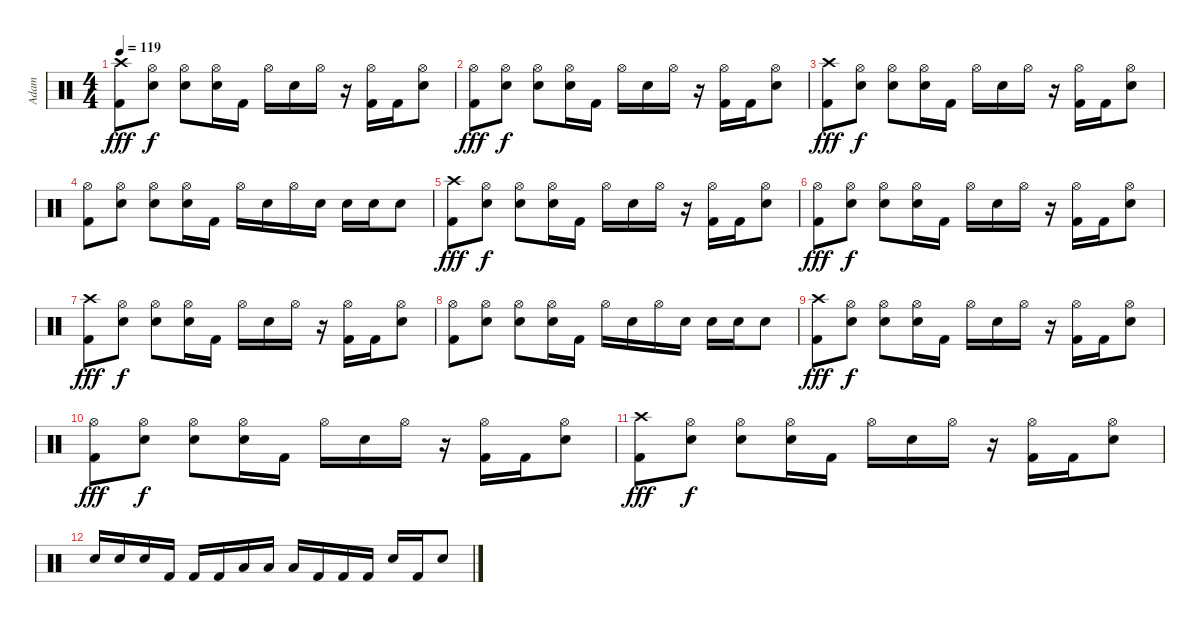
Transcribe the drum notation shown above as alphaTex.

\track ("Adam" "Adam") {instrument percussion}
\staff {score}
\articulation defaults
\ts (4 4)
\tempo 119
\clef neutral
\ks c
("Crash high (hit)" "Kick (hit) 2").8{dy fff} ("Hi-Hat (open)" "Electric Snare (hit)").8{dy f} ("Hi-Hat (open)" "Electric Snare (hit)").8 ("Hi-Hat (open)" "Electric Snare (hit)").16 "Kick (hit) 2".16 "Hi-Hat (open)".16 "Electric Snare (hit)".16 "Hi-Hat (open)".16 r.16 ("Hi-Hat (open)" "Kick (hit) 2").16 "Kick (hit) 2".16 ("Hi-Hat (open)" "Electric Snare (hit)").8 |
("Hi-Hat (open)" "Kick (hit) 2").8{dy fff} ("Hi-Hat (open)" "Electric Snare (hit)").8{dy f} ("Hi-Hat (open)" "Electric Snare (hit)").8 ("Hi-Hat (open)" "Electric Snare (hit)").16 "Kick (hit) 2".16 "Hi-Hat (open)".16 "Electric Snare (hit)".16 "Hi-Hat (open)".16 r.16 ("Hi-Hat (open)" "Kick (hit) 2").16 "Kick (hit) 2".16 ("Hi-Hat (open)" "Electric Snare (hit)").8 |
("Crash high (hit)" "Kick (hit) 2").8{dy fff} ("Hi-Hat (open)" "Electric Snare (hit)").8{dy f} ("Hi-Hat (open)" "Electric Snare (hit)").8 ("Hi-Hat (open)" "Electric Snare (hit)").16 "Kick (hit) 2".16 "Hi-Hat (open)".16 "Electric Snare (hit)".16 "Hi-Hat (open)".16 r.16 ("Hi-Hat (open)" "Kick (hit) 2").16 "Kick (hit) 2".16 ("Hi-Hat (open)" "Electric Snare (hit)").8 |
("Hi-Hat (open)" "Kick (hit) 2").8 ("Hi-Hat (open)" "Electric Snare (hit)").8 ("Hi-Hat (open)" "Electric Snare (hit)").8 ("Hi-Hat (open)" "Electric Snare (hit)").16 "Kick (hit) 2".16 "Hi-Hat (open)".16 "Electric Snare (hit)".16 "Hi-Hat (open)".16 "Electric Snare (hit)".16 "Electric Snare (hit)".16 "Electric Snare (hit)".16 "Electric Snare (hit)".8 |
("Crash high (hit)" "Kick (hit) 2").8{dy fff} ("Hi-Hat (open)" "Electric Snare (hit)").8{dy f} ("Hi-Hat (open)" "Electric Snare (hit)").8 ("Hi-Hat (open)" "Electric Snare (hit)").16 "Kick (hit) 2".16 "Hi-Hat (open)".16 "Electric Snare (hit)".16 "Hi-Hat (open)".16 r.16 ("Hi-Hat (open)" "Kick (hit) 2").16 "Kick (hit) 2".16 ("Hi-Hat (open)" "Electric Snare (hit)").8 |
("Hi-Hat (open)" "Kick (hit) 2").8{dy fff} ("Hi-Hat (open)" "Electric Snare (hit)").8{dy f} ("Hi-Hat (open)" "Electric Snare (hit)").8 ("Hi-Hat (open)" "Electric Snare (hit)").16 "Kick (hit) 2".16 "Hi-Hat (open)".16 "Electric Snare (hit)".16 "Hi-Hat (open)".16 r.16 ("Hi-Hat (open)" "Kick (hit) 2").16 "Kick (hit) 2".16 ("Hi-Hat (open)" "Electric Snare (hit)").8 |
("Crash high (hit)" "Kick (hit) 2").8{dy fff} ("Hi-Hat (open)" "Electric Snare (hit)").8{dy f} ("Hi-Hat (open)" "Electric Snare (hit)").8 ("Hi-Hat (open)" "Electric Snare (hit)").16 "Kick (hit) 2".16 "Hi-Hat (open)".16 "Electric Snare (hit)".16 "Hi-Hat (open)".16 r.16 ("Hi-Hat (open)" "Kick (hit) 2").16 "Kick (hit) 2".16 ("Hi-Hat (open)" "Electric Snare (hit)").8 |
("Hi-Hat (open)" "Kick (hit) 2").8 ("Hi-Hat (open)" "Electric Snare (hit)").8 ("Hi-Hat (open)" "Electric Snare (hit)").8 ("Hi-Hat (open)" "Electric Snare (hit)").16 "Kick (hit) 2".16 "Hi-Hat (open)".16 "Electric Snare (hit)".16 "Hi-Hat (open)".16 "Electric Snare (hit)".16 "Electric Snare (hit)".16 "Electric Snare (hit)".16 "Electric Snare (hit)".8 |
("Crash high (hit)" "Kick (hit) 2").8{dy fff} ("Hi-Hat (open)" "Electric Snare (hit)").8{dy f} ("Hi-Hat (open)" "Electric Snare (hit)").8 ("Hi-Hat (open)" "Electric Snare (hit)").16 "Kick (hit) 2".16 "Hi-Hat (open)".16 "Electric Snare (hit)".16 "Hi-Hat (open)".16 r.16 ("Hi-Hat (open)" "Kick (hit) 2").16 "Kick (hit) 2".16 ("Hi-Hat (open)" "Electric Snare (hit)").8 |
("Hi-Hat (open)" "Kick (hit) 2").8{dy fff} ("Hi-Hat (open)" "Electric Snare (hit)").8{dy f} ("Hi-Hat (open)" "Electric Snare (hit)").8 ("Hi-Hat (open)" "Electric Snare (hit)").16 "Kick (hit) 2".16 "Hi-Hat (open)".16 "Electric Snare (hit)".16 "Hi-Hat (open)".16 r.16 ("Hi-Hat (open)" "Kick (hit) 2").16 "Kick (hit) 2".16 ("Hi-Hat (open)" "Electric Snare (hit)").8 |
("Crash high (hit)" "Kick (hit) 2").8{dy fff} ("Hi-Hat (open)" "Electric Snare (hit)").8{dy f} ("Hi-Hat (open)" "Electric Snare (hit)").8 ("Hi-Hat (open)" "Electric Snare (hit)").16 "Kick (hit) 2".16 "Hi-Hat (open)".16 "Electric Snare (hit)".16 "Hi-Hat (open)".16 r.16 ("Hi-Hat (open)" "Kick (hit) 2").16 "Kick (hit) 2".16 ("Hi-Hat (open)" "Electric Snare (hit)").8 |
"Electric Snare (hit)".16 "Electric Snare (hit)".16 "Electric Snare (hit)".16 "Kick (hit) 2".16 "Kick (hit) 2".16 "Kick (hit) 2".16 "Low Tom (hit)".16 "Low Tom (hit)".16 "Low Tom (hit)".16 "Kick (hit) 2".16 "Kick (hit) 2".16 "Kick (hit) 2".16 "Electric Snare (hit)".16 "Kick (hit) 2".16 "Electric Snare (hit)".8
